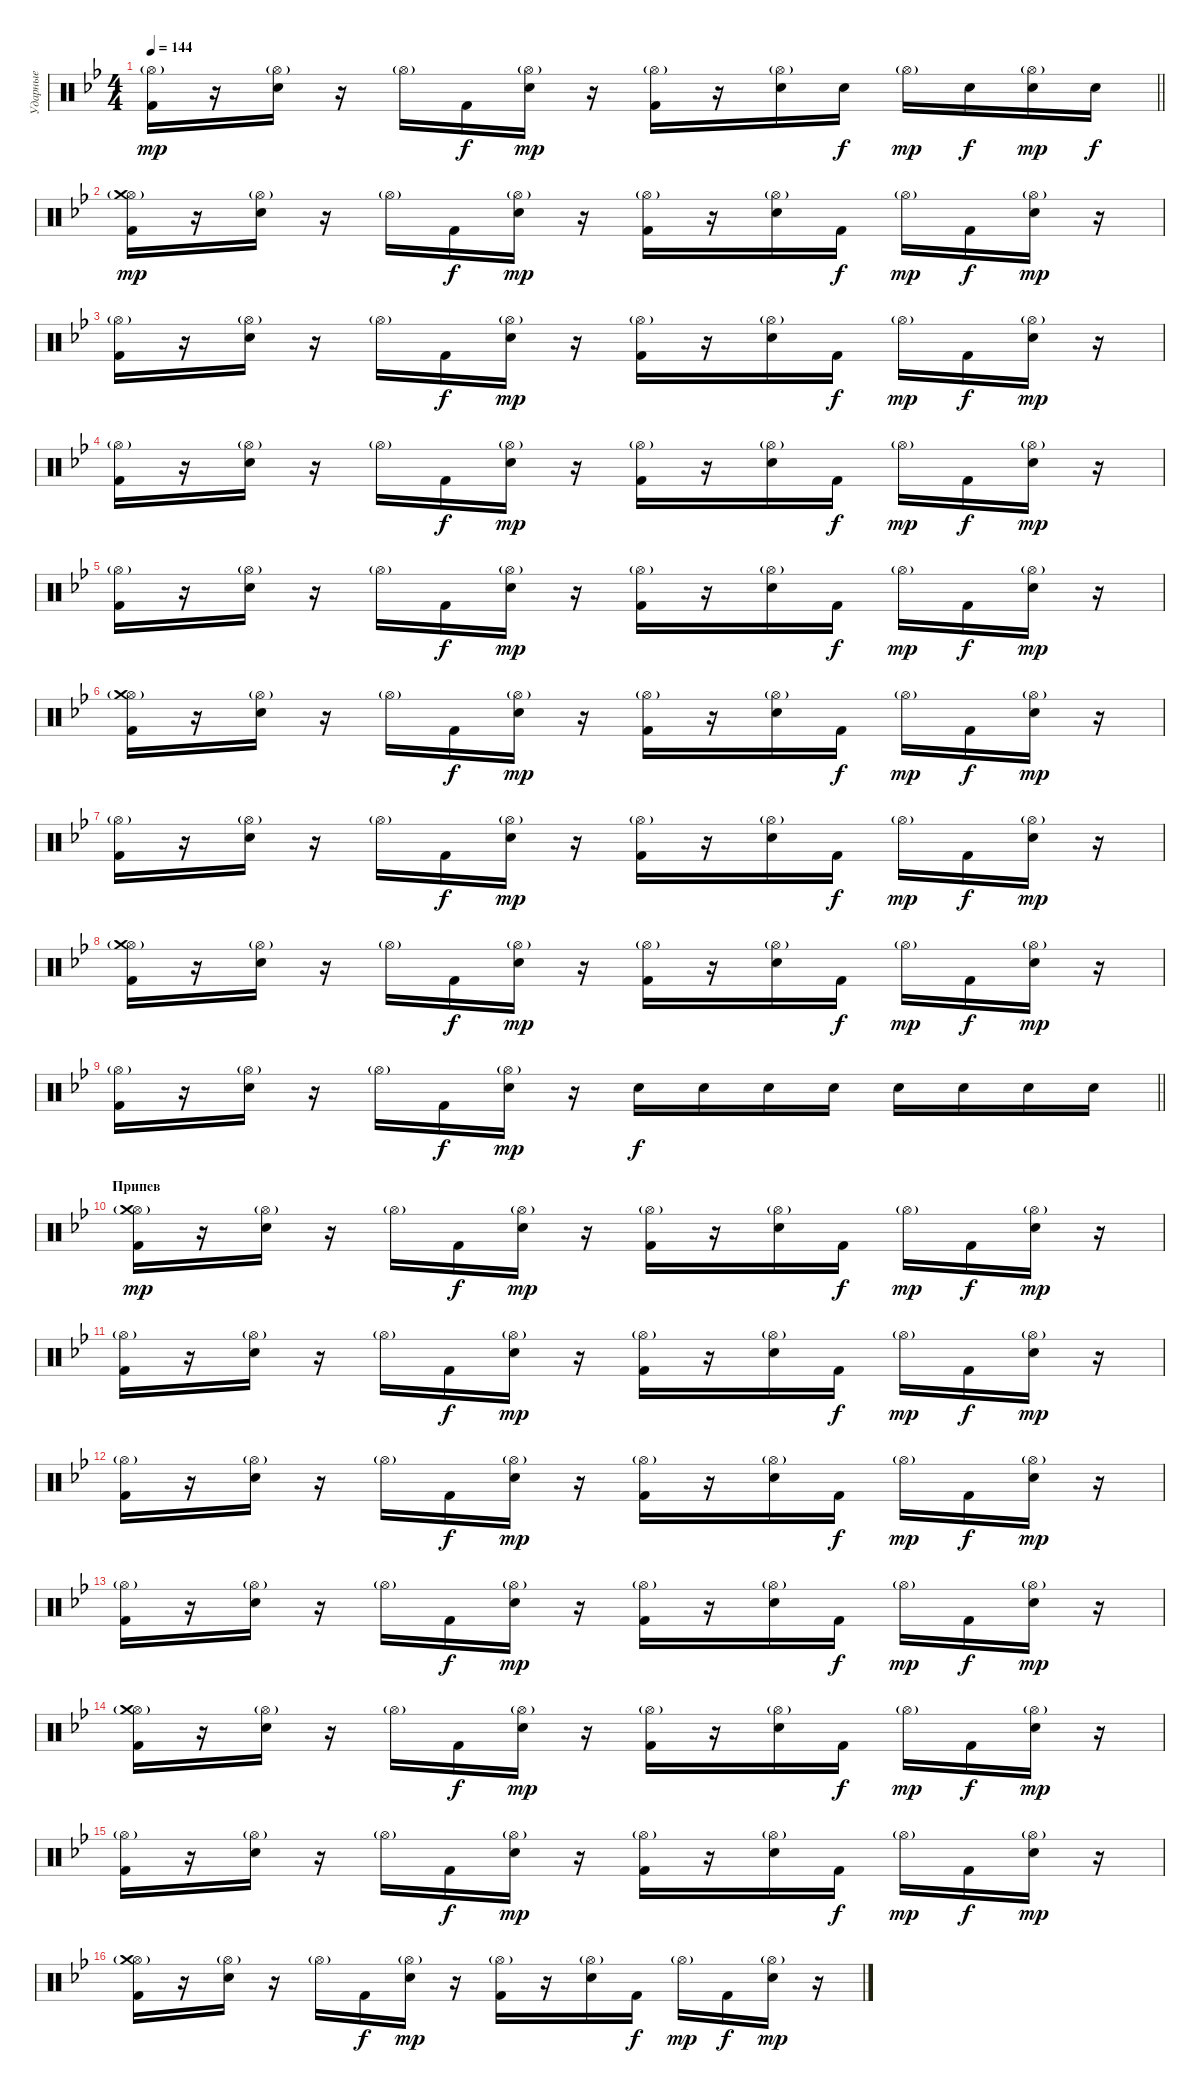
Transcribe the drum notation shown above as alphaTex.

\track ("Ударные" "Ударные") {instrument percussion}
\staff {score}
\articulation defaults
\ts (4 4)
\tempo 144
\clef neutral
\barLineRight lightlight
\ks gminor
("Hi-Hat (open)"{g} "Kick (hit) 2").16{dy mp} r.16 ("Hi-Hat (open)"{g} "Electric Snare (hit)").16 r.16 "Hi-Hat (open)"{g}.16 "Kick (hit) 2".16{dy f} ("Hi-Hat (open)"{g} "Electric Snare (hit)").16{dy mp} r.16 ("Hi-Hat (open)"{g} "Kick (hit) 2").16 r.16 ("Hi-Hat (open)"{g} "Electric Snare (hit)").16 "Electric Snare (hit)".16{dy f} "Hi-Hat (open)"{g}.16{dy mp} "Electric Snare (hit)".16{dy f} ("Hi-Hat (open)"{g} "Electric Snare (hit)").16{dy mp} "Electric Snare (hit)".16{dy f} |
("Hi-Hat (open)"{g} "Crash medium (hit)" "Kick (hit) 2").16{dy mp} r.16 ("Hi-Hat (open)"{g} "Electric Snare (hit)").16 r.16 "Hi-Hat (open)"{g}.16 "Kick (hit) 2".16{dy f} ("Hi-Hat (open)"{g} "Electric Snare (hit)").16{dy mp} r.16 ("Hi-Hat (open)"{g} "Kick (hit) 2").16 r.16 ("Hi-Hat (open)"{g} "Electric Snare (hit)").16 "Kick (hit) 2".16{dy f} "Hi-Hat (open)"{g}.16{dy mp} "Kick (hit) 2".16{dy f} ("Hi-Hat (open)"{g} "Electric Snare (hit)").16{dy mp} r.16 |
("Hi-Hat (open)"{g} "Kick (hit) 2").16 r.16 ("Hi-Hat (open)"{g} "Electric Snare (hit)").16 r.16 "Hi-Hat (open)"{g}.16 "Kick (hit) 2".16{dy f} ("Hi-Hat (open)"{g} "Electric Snare (hit)").16{dy mp} r.16 ("Hi-Hat (open)"{g} "Kick (hit) 2").16 r.16 ("Hi-Hat (open)"{g} "Electric Snare (hit)").16 "Kick (hit) 2".16{dy f} "Hi-Hat (open)"{g}.16{dy mp} "Kick (hit) 2".16{dy f} ("Hi-Hat (open)"{g} "Electric Snare (hit)").16{dy mp} r.16 |
("Hi-Hat (open)"{g} "Kick (hit) 2").16 r.16 ("Hi-Hat (open)"{g} "Electric Snare (hit)").16 r.16 "Hi-Hat (open)"{g}.16 "Kick (hit) 2".16{dy f} ("Hi-Hat (open)"{g} "Electric Snare (hit)").16{dy mp} r.16 ("Hi-Hat (open)"{g} "Kick (hit) 2").16 r.16 ("Hi-Hat (open)"{g} "Electric Snare (hit)").16 "Kick (hit) 2".16{dy f} "Hi-Hat (open)"{g}.16{dy mp} "Kick (hit) 2".16{dy f} ("Hi-Hat (open)"{g} "Electric Snare (hit)").16{dy mp} r.16 |
("Hi-Hat (open)"{g} "Kick (hit) 2").16 r.16 ("Hi-Hat (open)"{g} "Electric Snare (hit)").16 r.16 "Hi-Hat (open)"{g}.16 "Kick (hit) 2".16{dy f} ("Hi-Hat (open)"{g} "Electric Snare (hit)").16{dy mp} r.16 ("Hi-Hat (open)"{g} "Kick (hit) 2").16 r.16 ("Hi-Hat (open)"{g} "Electric Snare (hit)").16 "Kick (hit) 2".16{dy f} "Hi-Hat (open)"{g}.16{dy mp} "Kick (hit) 2".16{dy f} ("Hi-Hat (open)"{g} "Electric Snare (hit)").16{dy mp} r.16 |
("Hi-Hat (open)"{g} "Crash medium (hit)" "Kick (hit) 2").16 r.16 ("Hi-Hat (open)"{g} "Electric Snare (hit)").16 r.16 "Hi-Hat (open)"{g}.16 "Kick (hit) 2".16{dy f} ("Hi-Hat (open)"{g} "Electric Snare (hit)").16{dy mp} r.16 ("Hi-Hat (open)"{g} "Kick (hit) 2").16 r.16 ("Hi-Hat (open)"{g} "Electric Snare (hit)").16 "Kick (hit) 2".16{dy f} "Hi-Hat (open)"{g}.16{dy mp} "Kick (hit) 2".16{dy f} ("Hi-Hat (open)"{g} "Electric Snare (hit)").16{dy mp} r.16 |
("Hi-Hat (open)"{g} "Kick (hit) 2").16 r.16 ("Hi-Hat (open)"{g} "Electric Snare (hit)").16 r.16 "Hi-Hat (open)"{g}.16 "Kick (hit) 2".16{dy f} ("Hi-Hat (open)"{g} "Electric Snare (hit)").16{dy mp} r.16 ("Hi-Hat (open)"{g} "Kick (hit) 2").16 r.16 ("Hi-Hat (open)"{g} "Electric Snare (hit)").16 "Kick (hit) 2".16{dy f} "Hi-Hat (open)"{g}.16{dy mp} "Kick (hit) 2".16{dy f} ("Hi-Hat (open)"{g} "Electric Snare (hit)").16{dy mp} r.16 |
("Hi-Hat (open)"{g} "Crash medium (hit)" "Kick (hit) 2").16 r.16 ("Hi-Hat (open)"{g} "Electric Snare (hit)").16 r.16 "Hi-Hat (open)"{g}.16 "Kick (hit) 2".16{dy f} ("Hi-Hat (open)"{g} "Electric Snare (hit)").16{dy mp} r.16 ("Hi-Hat (open)"{g} "Kick (hit) 2").16 r.16 ("Hi-Hat (open)"{g} "Electric Snare (hit)").16 "Kick (hit) 2".16{dy f} "Hi-Hat (open)"{g}.16{dy mp} "Kick (hit) 2".16{dy f} ("Hi-Hat (open)"{g} "Electric Snare (hit)").16{dy mp} r.16 |
\barLineRight lightlight
("Hi-Hat (open)"{g} "Kick (hit) 2").16 r.16 ("Hi-Hat (open)"{g} "Electric Snare (hit)").16 r.16 "Hi-Hat (open)"{g}.16 "Kick (hit) 2".16{dy f} ("Hi-Hat (open)"{g} "Electric Snare (hit)").16{dy mp} r.16 "Electric Snare (hit)".16{dy f} "Electric Snare (hit)".16 "Electric Snare (hit)".16 "Electric Snare (hit)".16 "Electric Snare (hit)".16 "Electric Snare (hit)".16 "Electric Snare (hit)".16 "Electric Snare (hit)".16 |
\section ("" "Припев")
("Hi-Hat (open)"{g} "Crash medium (hit)" "Kick (hit) 2").16{dy mp} r.16 ("Hi-Hat (open)"{g} "Electric Snare (hit)").16 r.16 "Hi-Hat (open)"{g}.16 "Kick (hit) 2".16{dy f} ("Hi-Hat (open)"{g} "Electric Snare (hit)").16{dy mp} r.16 ("Hi-Hat (open)"{g} "Kick (hit) 2").16 r.16 ("Hi-Hat (open)"{g} "Electric Snare (hit)").16 "Kick (hit) 2".16{dy f} "Hi-Hat (open)"{g}.16{dy mp} "Kick (hit) 2".16{dy f} ("Hi-Hat (open)"{g} "Electric Snare (hit)").16{dy mp} r.16 |
("Hi-Hat (open)"{g} "Kick (hit) 2").16 r.16 ("Hi-Hat (open)"{g} "Electric Snare (hit)").16 r.16 "Hi-Hat (open)"{g}.16 "Kick (hit) 2".16{dy f} ("Hi-Hat (open)"{g} "Electric Snare (hit)").16{dy mp} r.16 ("Hi-Hat (open)"{g} "Kick (hit) 2").16 r.16 ("Hi-Hat (open)"{g} "Electric Snare (hit)").16 "Kick (hit) 2".16{dy f} "Hi-Hat (open)"{g}.16{dy mp} "Kick (hit) 2".16{dy f} ("Hi-Hat (open)"{g} "Electric Snare (hit)").16{dy mp} r.16 |
("Hi-Hat (open)"{g} "Kick (hit) 2").16 r.16 ("Hi-Hat (open)"{g} "Electric Snare (hit)").16 r.16 "Hi-Hat (open)"{g}.16 "Kick (hit) 2".16{dy f} ("Hi-Hat (open)"{g} "Electric Snare (hit)").16{dy mp} r.16 ("Hi-Hat (open)"{g} "Kick (hit) 2").16 r.16 ("Hi-Hat (open)"{g} "Electric Snare (hit)").16 "Kick (hit) 2".16{dy f} "Hi-Hat (open)"{g}.16{dy mp} "Kick (hit) 2".16{dy f} ("Hi-Hat (open)"{g} "Electric Snare (hit)").16{dy mp} r.16 |
("Hi-Hat (open)"{g} "Kick (hit) 2").16 r.16 ("Hi-Hat (open)"{g} "Electric Snare (hit)").16 r.16 "Hi-Hat (open)"{g}.16 "Kick (hit) 2".16{dy f} ("Hi-Hat (open)"{g} "Electric Snare (hit)").16{dy mp} r.16 ("Hi-Hat (open)"{g} "Kick (hit) 2").16 r.16 ("Hi-Hat (open)"{g} "Electric Snare (hit)").16 "Kick (hit) 2".16{dy f} "Hi-Hat (open)"{g}.16{dy mp} "Kick (hit) 2".16{dy f} ("Hi-Hat (open)"{g} "Electric Snare (hit)").16{dy mp} r.16 |
("Hi-Hat (open)"{g} "Crash medium (hit)" "Kick (hit) 2").16 r.16 ("Hi-Hat (open)"{g} "Electric Snare (hit)").16 r.16 "Hi-Hat (open)"{g}.16 "Kick (hit) 2".16{dy f} ("Hi-Hat (open)"{g} "Electric Snare (hit)").16{dy mp} r.16 ("Hi-Hat (open)"{g} "Kick (hit) 2").16 r.16 ("Hi-Hat (open)"{g} "Electric Snare (hit)").16 "Kick (hit) 2".16{dy f} "Hi-Hat (open)"{g}.16{dy mp} "Kick (hit) 2".16{dy f} ("Hi-Hat (open)"{g} "Electric Snare (hit)").16{dy mp} r.16 |
("Hi-Hat (open)"{g} "Kick (hit) 2").16 r.16 ("Hi-Hat (open)"{g} "Electric Snare (hit)").16 r.16 "Hi-Hat (open)"{g}.16 "Kick (hit) 2".16{dy f} ("Hi-Hat (open)"{g} "Electric Snare (hit)").16{dy mp} r.16 ("Hi-Hat (open)"{g} "Kick (hit) 2").16 r.16 ("Hi-Hat (open)"{g} "Electric Snare (hit)").16 "Kick (hit) 2".16{dy f} "Hi-Hat (open)"{g}.16{dy mp} "Kick (hit) 2".16{dy f} ("Hi-Hat (open)"{g} "Electric Snare (hit)").16{dy mp} r.16 |
("Hi-Hat (open)"{g} "Kick (hit) 2" "Crash medium (hit)").16 r.16 ("Hi-Hat (open)"{g} "Electric Snare (hit)").16 r.16 "Hi-Hat (open)"{g}.16 "Kick (hit) 2".16{dy f} ("Hi-Hat (open)"{g} "Electric Snare (hit)").16{dy mp} r.16 ("Hi-Hat (open)"{g} "Kick (hit) 2").16 r.16 ("Hi-Hat (open)"{g} "Electric Snare (hit)").16 "Kick (hit) 2".16{dy f} "Hi-Hat (open)"{g}.16{dy mp} "Kick (hit) 2".16{dy f} ("Hi-Hat (open)"{g} "Electric Snare (hit)").16{dy mp} r.16
